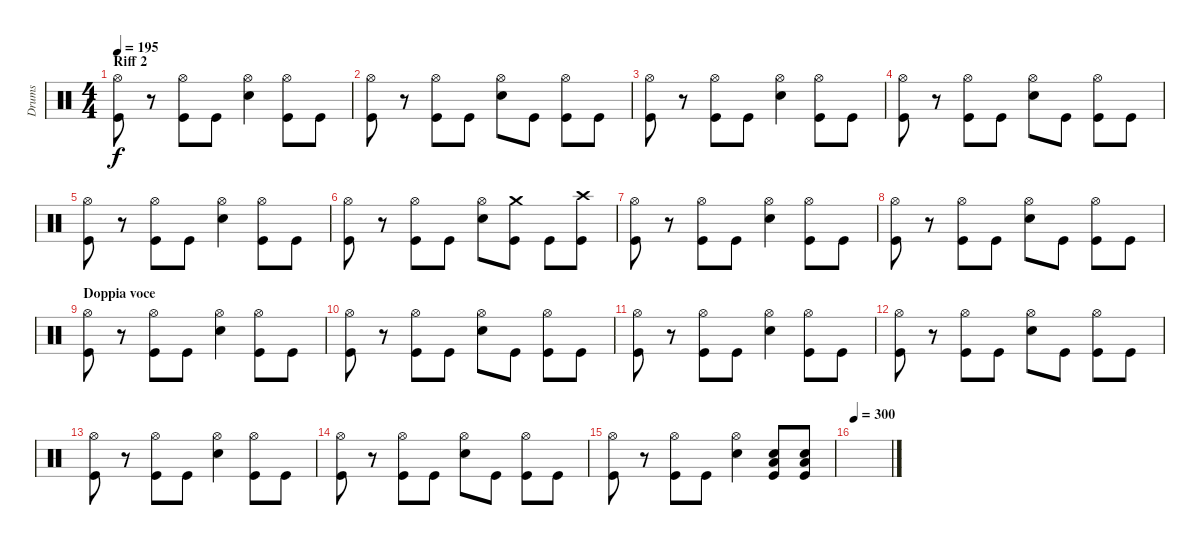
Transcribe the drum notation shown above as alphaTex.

\track ("Drums" "Drums") {instrument percussion}
\staff {score}
\articulation defaults
\ts (4 4)
\section ("" "Riff 2")
\tempo 195
\clef neutral
\ks c
("Hi-Hat (open)" "Kick (hit)").8{dy f} r.8 ("Hi-Hat (open)" "Kick (hit)").8 "Kick (hit)".8 ("Hi-Hat (open)" "Electric Snare (hit)").4 ("Hi-Hat (open)" "Kick (hit)").8 "Kick (hit)".8 |
("Hi-Hat (open)" "Kick (hit)").8 r.8 ("Hi-Hat (open)" "Kick (hit)").8 "Kick (hit)".8 ("Hi-Hat (open)" "Electric Snare (hit)").8 "Kick (hit)".8 ("Hi-Hat (open)" "Kick (hit)").8 "Kick (hit)".8 |
("Hi-Hat (open)" "Kick (hit)").8 r.8 ("Hi-Hat (open)" "Kick (hit)").8 "Kick (hit)".8 ("Hi-Hat (open)" "Electric Snare (hit)").4 ("Hi-Hat (open)" "Kick (hit)").8 "Kick (hit)".8 |
("Hi-Hat (open)" "Kick (hit)").8 r.8 ("Hi-Hat (open)" "Kick (hit)").8 "Kick (hit)".8 ("Hi-Hat (open)" "Electric Snare (hit)").8 "Kick (hit)".8 ("Hi-Hat (open)" "Kick (hit)").8 "Kick (hit)".8 |
("Hi-Hat (open)" "Kick (hit)").8 r.8 ("Hi-Hat (open)" "Kick (hit)").8 "Kick (hit)".8 ("Hi-Hat (open)" "Electric Snare (hit)").4 ("Hi-Hat (open)" "Kick (hit)").8 "Kick (hit)".8 |
("Hi-Hat (open)" "Kick (hit)").8 r.8 ("Hi-Hat (open)" "Kick (hit)").8 "Kick (hit)".8 ("Hi-Hat (open)" "Electric Snare (hit)").8 ("Crash medium (hit)" "Kick (hit)").8 "Kick (hit)".8 ("Crash high (hit)" "Kick (hit)").8 |
("Hi-Hat (open)" "Kick (hit)").8 r.8 ("Hi-Hat (open)" "Kick (hit)").8 "Kick (hit)".8 ("Hi-Hat (open)" "Electric Snare (hit)").4 ("Hi-Hat (open)" "Kick (hit)").8 "Kick (hit)".8 |
("Hi-Hat (open)" "Kick (hit)").8 r.8 ("Hi-Hat (open)" "Kick (hit)").8 "Kick (hit)".8 ("Hi-Hat (open)" "Electric Snare (hit)").8 "Kick (hit)".8 ("Hi-Hat (open)" "Kick (hit)").8 "Kick (hit)".8 |
\section ("" "Doppia voce")
("Hi-Hat (open)" "Kick (hit)").8 r.8 ("Hi-Hat (open)" "Kick (hit)").8 "Kick (hit)".8 ("Hi-Hat (open)" "Electric Snare (hit)").4 ("Hi-Hat (open)" "Kick (hit)").8 "Kick (hit)".8 |
("Hi-Hat (open)" "Kick (hit)").8 r.8 ("Hi-Hat (open)" "Kick (hit)").8 "Kick (hit)".8 ("Hi-Hat (open)" "Electric Snare (hit)").8 "Kick (hit)".8 ("Hi-Hat (open)" "Kick (hit)").8 "Kick (hit)".8 |
("Hi-Hat (open)" "Kick (hit)").8 r.8 ("Hi-Hat (open)" "Kick (hit)").8 "Kick (hit)".8 ("Hi-Hat (open)" "Electric Snare (hit)").4 ("Hi-Hat (open)" "Kick (hit)").8 "Kick (hit)".8 |
("Hi-Hat (open)" "Kick (hit)").8 r.8 ("Hi-Hat (open)" "Kick (hit)").8 "Kick (hit)".8 ("Hi-Hat (open)" "Electric Snare (hit)").8 "Kick (hit)".8 ("Hi-Hat (open)" "Kick (hit)").8 "Kick (hit)".8 |
("Hi-Hat (open)" "Kick (hit)").8 r.8 ("Hi-Hat (open)" "Kick (hit)").8 "Kick (hit)".8 ("Hi-Hat (open)" "Electric Snare (hit)").4 ("Hi-Hat (open)" "Kick (hit)").8 "Kick (hit)".8 |
("Hi-Hat (open)" "Kick (hit)").8 r.8 ("Hi-Hat (open)" "Kick (hit)").8 "Kick (hit)".8 ("Hi-Hat (open)" "Electric Snare (hit)").8 "Kick (hit)".8 ("Hi-Hat (open)" "Kick (hit)").8 "Kick (hit)".8 |
("Hi-Hat (open)" "Kick (hit)").8 r.8 ("Hi-Hat (open)" "Kick (hit)").8 "Kick (hit)".8 ("Hi-Hat (open)" "Electric Snare (hit)").4 ("Electric Snare (hit)" "Low Floor Tom (hit)" "Kick (hit)").8 ("Electric Snare (hit)" "Low Floor Tom (hit)" "Kick (hit)").8 |
\tempo 300
